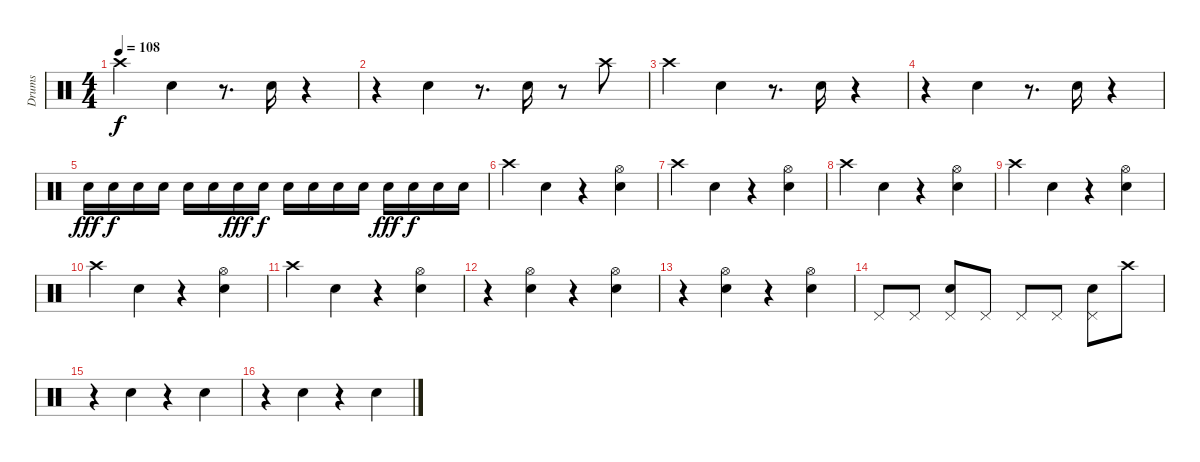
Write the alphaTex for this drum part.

\track ("Drums" "Drums") {instrument percussion}
\staff {score}
\articulation defaults
\ts (4 4)
\tempo 108
\clef neutral
\ks c "Crash high (hit)".4{dy f} "Snare (hit) 2".4
r.8{d} "Snare (hit) 2".16 r.4 |
r.4 "Snare (hit) 2".4 r.8{d} "Snare (hit) 2".16 r.8 "Crash high (hit)".8 |
"Crash high (hit)".4 "Snare (hit) 2".4 r.8{d} "Snare (hit) 2".16 r.4 |
r.4 "Snare (hit) 2".4 r.8{d} "Snare (hit) 2".16 r.4 |
"Snare (hit) 2".16{dy fff} "Snare (hit) 2".16{dy f} "Snare (hit) 2".16 "Snare (hit) 2".16 "Snare (hit) 2".16 "Snare (hit) 2".16 "Snare (hit) 2".16{dy fff} "Snare (hit) 2".16{dy f} "Snare (hit) 2".16 "Snare (hit) 2".16 "Snare (hit) 2".16 "Snare (hit) 2".16 "Snare (hit) 2".16{dy fff} "Snare (hit) 2".16{dy f} "Snare (hit) 2".16 "Snare (hit) 2".16 |
"Crash high (hit)".4 "Snare (hit) 2".4 r.4 ("Hi-Hat (open)" "Snare (hit) 2").4 |
"Crash high (hit)".4 "Snare (hit) 2".4 r.4 ("Hi-Hat (open)" "Snare (hit) 2").4 |
"Crash high (hit)".4 "Snare (hit) 2".4 r.4 ("Hi-Hat (open)" "Snare (hit) 2").4 |
"Crash high (hit)".4 "Snare (hit) 2".4 r.4 ("Hi-Hat (open)" "Snare (hit) 2").4 |
"Crash high (hit)".4 "Snare (hit) 2".4 r.4 ("Hi-Hat (open)" "Snare (hit) 2").4 |
"Crash high (hit)".4 "Snare (hit) 2".4 r.4 ("Hi-Hat (open)" "Snare (hit) 2").4 |
r.4 ("Hi-Hat (open)" "Snare (hit) 2").4 r.4 ("Hi-Hat (open)" "Snare (hit) 2").4 |
r.4 ("Hi-Hat (open)" "Snare (hit) 2").4 r.4 ("Hi-Hat (open)" "Snare (hit) 2").4 |
"Pedal Hi-Hat (hit)".8 "Pedal Hi-Hat (hit)".8 ("Pedal Hi-Hat (hit)" "Snare (hit) 2").8 "Pedal Hi-Hat (hit)".8 "Pedal Hi-Hat (hit)".8 "Pedal Hi-Hat (hit)".8 ("Pedal Hi-Hat (hit)" "Snare (hit) 2").8 "Crash high (hit)".8 |
r.4 "Snare (hit) 2".4 r.4 "Snare (hit) 2".4 |
r.4 "Snare (hit) 2".4 r.4 "Snare (hit) 2".4
